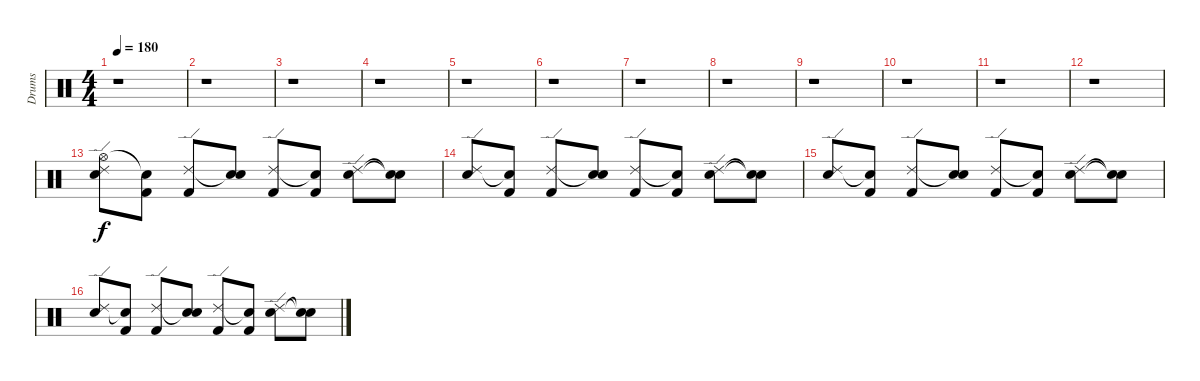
\track ("Drums" "Drums") {instrument percussion}
\staff {score}
\articulation defaults
\ts (4 4)
\tempo 180
\clef neutral
\ks c
r.1{dy f} |
r.1 |
r.1 |
r.1 |
r.1 |
r.1 |
r.1 |
r.1 |
r.1 |
r.1 |
r.1 |
r.1 |
("Hi-Hat (open)" "Ride (edge) 2" "Electric Snare (hit)").8 ("Snare (hit)"{t} "Kick (hit) 2").8 ("Ride (edge) 2" "Kick (hit) 2").8 ("Snare (hit)"{t} "Electric Snare (hit)").8 ("Ride (edge) 2" "Kick (hit) 2").8 ("Snare (hit)"{t} "Kick (hit) 2").8 ("Ride (edge) 2" "Electric Snare (hit)").8 ("Snare (hit)"{t} "Snare (hit)"{t}).8 |
("Ride (edge) 2" "Electric Snare (hit)").8 ("Snare (hit)"{t} "Kick (hit) 2").8 ("Ride (edge) 2" "Kick (hit) 2").8 ("Snare (hit)"{t} "Electric Snare (hit)").8 ("Ride (edge) 2" "Kick (hit) 2").8 ("Snare (hit)"{t} "Kick (hit) 2").8 ("Ride (edge) 2" "Electric Snare (hit)").8 ("Snare (hit)"{t} "Snare (hit)"{t}).8 |
("Ride (edge) 2" "Electric Snare (hit)").8 ("Snare (hit)"{t} "Kick (hit) 2").8 ("Ride (edge) 2" "Kick (hit) 2").8 ("Snare (hit)"{t} "Electric Snare (hit)").8 ("Ride (edge) 2" "Kick (hit) 2").8 ("Snare (hit)"{t} "Kick (hit) 2").8 ("Ride (edge) 2" "Electric Snare (hit)").8 ("Snare (hit)"{t} "Snare (hit)"{t}).8 |
("Ride (edge) 2" "Electric Snare (hit)").8 ("Snare (hit)"{t} "Kick (hit) 2").8 ("Ride (edge) 2" "Kick (hit) 2").8 ("Snare (hit)"{t} "Electric Snare (hit)").8 ("Ride (edge) 2" "Kick (hit) 2").8 ("Snare (hit)"{t} "Kick (hit) 2").8 ("Ride (edge) 2" "Electric Snare (hit)").8 ("Snare (hit)"{t} "Snare (hit)"{t}).8
